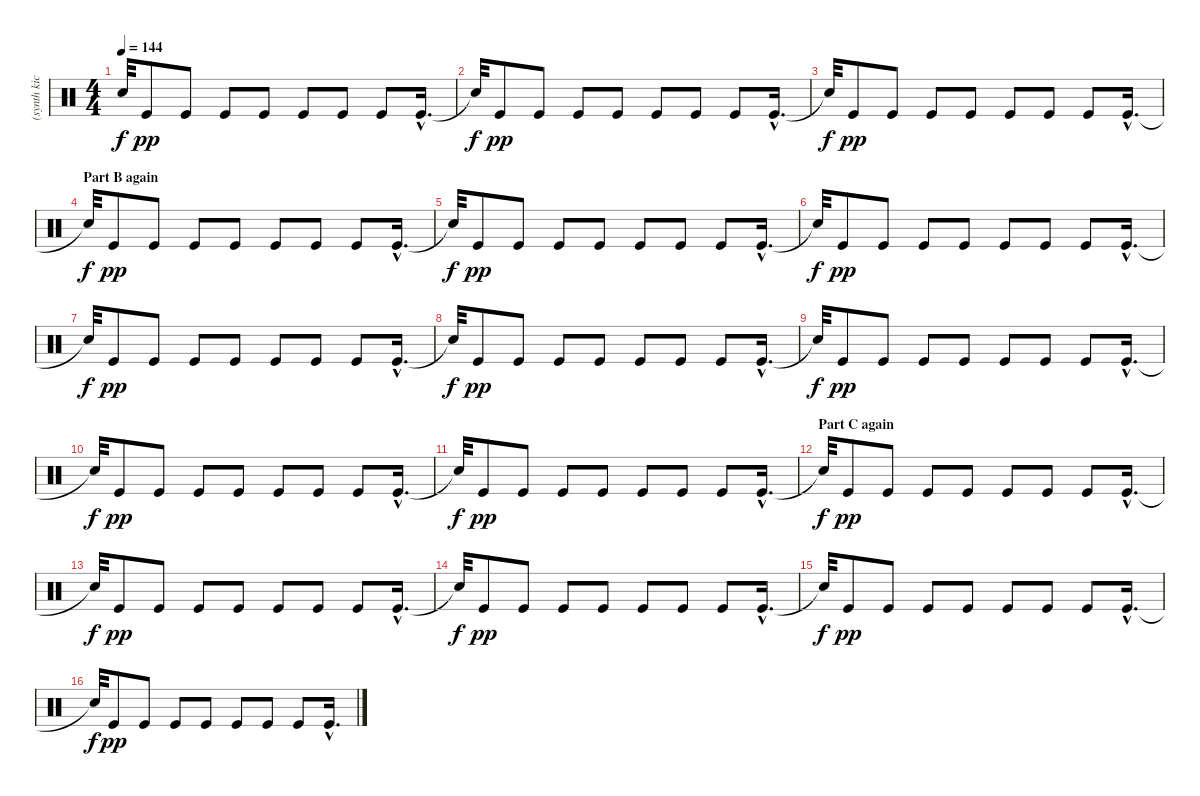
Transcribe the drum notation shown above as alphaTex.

\track ("(synth kick loop reverb)" "(synth kic") {instrument percussion}
\staff {score}
\articulation defaults
\ts (4 4)
\tempo 144
\clef neutral
\ks c "Snare (hit)"{t}.32{dy f} "Kick (hit)".8{dy pp} "Kick (hit)".8 "Kick (hit)".8 "Kick (hit)".8 "Kick (hit)".8 "Kick (hit)".8 "Kick (hit)".8 "Kick (hit)"{hac}.16{d}
|
"Snare (hit)"{t}.32{dy f} "Kick (hit)".8{dy pp} "Kick (hit)".8 "Kick (hit)".8 "Kick (hit)".8 "Kick (hit)".8 "Kick (hit)".8 "Kick (hit)".8 "Kick (hit)"{hac}.16{d} |
"Snare (hit)"{t}.32{dy f} "Kick (hit)".8{dy pp} "Kick (hit)".8 "Kick (hit)".8 "Kick (hit)".8 "Kick (hit)".8 "Kick (hit)".8 "Kick (hit)".8 "Kick (hit)"{hac}.16{d} |
\section ("" "Part B again")
"Snare (hit)"{t}.32{dy f} "Kick (hit)".8{dy pp} "Kick (hit)".8 "Kick (hit)".8 "Kick (hit)".8 "Kick (hit)".8 "Kick (hit)".8 "Kick (hit)".8 "Kick (hit)"{hac}.16{d} |
"Snare (hit)"{t}.32{dy f} "Kick (hit)".8{dy pp} "Kick (hit)".8 "Kick (hit)".8 "Kick (hit)".8 "Kick (hit)".8 "Kick (hit)".8 "Kick (hit)".8 "Kick (hit)"{hac}.16{d} |
"Snare (hit)"{t}.32{dy f} "Kick (hit)".8{dy pp} "Kick (hit)".8 "Kick (hit)".8 "Kick (hit)".8 "Kick (hit)".8 "Kick (hit)".8 "Kick (hit)".8 "Kick (hit)"{hac}.16{d} |
"Snare (hit)"{t}.32{dy f} "Kick (hit)".8{dy pp} "Kick (hit)".8 "Kick (hit)".8 "Kick (hit)".8 "Kick (hit)".8 "Kick (hit)".8 "Kick (hit)".8 "Kick (hit)"{hac}.16{d} |
"Snare (hit)"{t}.32{dy f} "Kick (hit)".8{dy pp} "Kick (hit)".8 "Kick (hit)".8 "Kick (hit)".8 "Kick (hit)".8 "Kick (hit)".8 "Kick (hit)".8 "Kick (hit)"{hac}.16{d} |
"Snare (hit)"{t}.32{dy f} "Kick (hit)".8{dy pp} "Kick (hit)".8 "Kick (hit)".8 "Kick (hit)".8 "Kick (hit)".8 "Kick (hit)".8 "Kick (hit)".8 "Kick (hit)"{hac}.16{d} |
"Snare (hit)"{t}.32{dy f} "Kick (hit)".8{dy pp} "Kick (hit)".8 "Kick (hit)".8 "Kick (hit)".8 "Kick (hit)".8 "Kick (hit)".8 "Kick (hit)".8 "Kick (hit)"{hac}.16{d} |
"Snare (hit)"{t}.32{dy f} "Kick (hit)".8{dy pp} "Kick (hit)".8 "Kick (hit)".8 "Kick (hit)".8 "Kick (hit)".8 "Kick (hit)".8 "Kick (hit)".8 "Kick (hit)"{hac}.16{d} |
\section ("" "Part C again")
"Snare (hit)"{t}.32{dy f} "Kick (hit)".8{dy pp} "Kick (hit)".8 "Kick (hit)".8 "Kick (hit)".8 "Kick (hit)".8 "Kick (hit)".8 "Kick (hit)".8 "Kick (hit)"{hac}.16{d} |
"Snare (hit)"{t}.32{dy f} "Kick (hit)".8{dy pp} "Kick (hit)".8 "Kick (hit)".8 "Kick (hit)".8 "Kick (hit)".8 "Kick (hit)".8 "Kick (hit)".8 "Kick (hit)"{hac}.16{d} |
"Snare (hit)"{t}.32{dy f} "Kick (hit)".8{dy pp} "Kick (hit)".8 "Kick (hit)".8 "Kick (hit)".8 "Kick (hit)".8 "Kick (hit)".8 "Kick (hit)".8 "Kick (hit)"{hac}.16{d} |
"Snare (hit)"{t}.32{dy f} "Kick (hit)".8{dy pp} "Kick (hit)".8 "Kick (hit)".8 "Kick (hit)".8 "Kick (hit)".8 "Kick (hit)".8 "Kick (hit)".8 "Kick (hit)"{hac}.16{d} |
"Snare (hit)"{t}.32{dy f} "Kick (hit)".8{dy pp} "Kick (hit)".8 "Kick (hit)".8 "Kick (hit)".8 "Kick (hit)".8 "Kick (hit)".8 "Kick (hit)".8 "Kick (hit)"{hac}.16{d}
